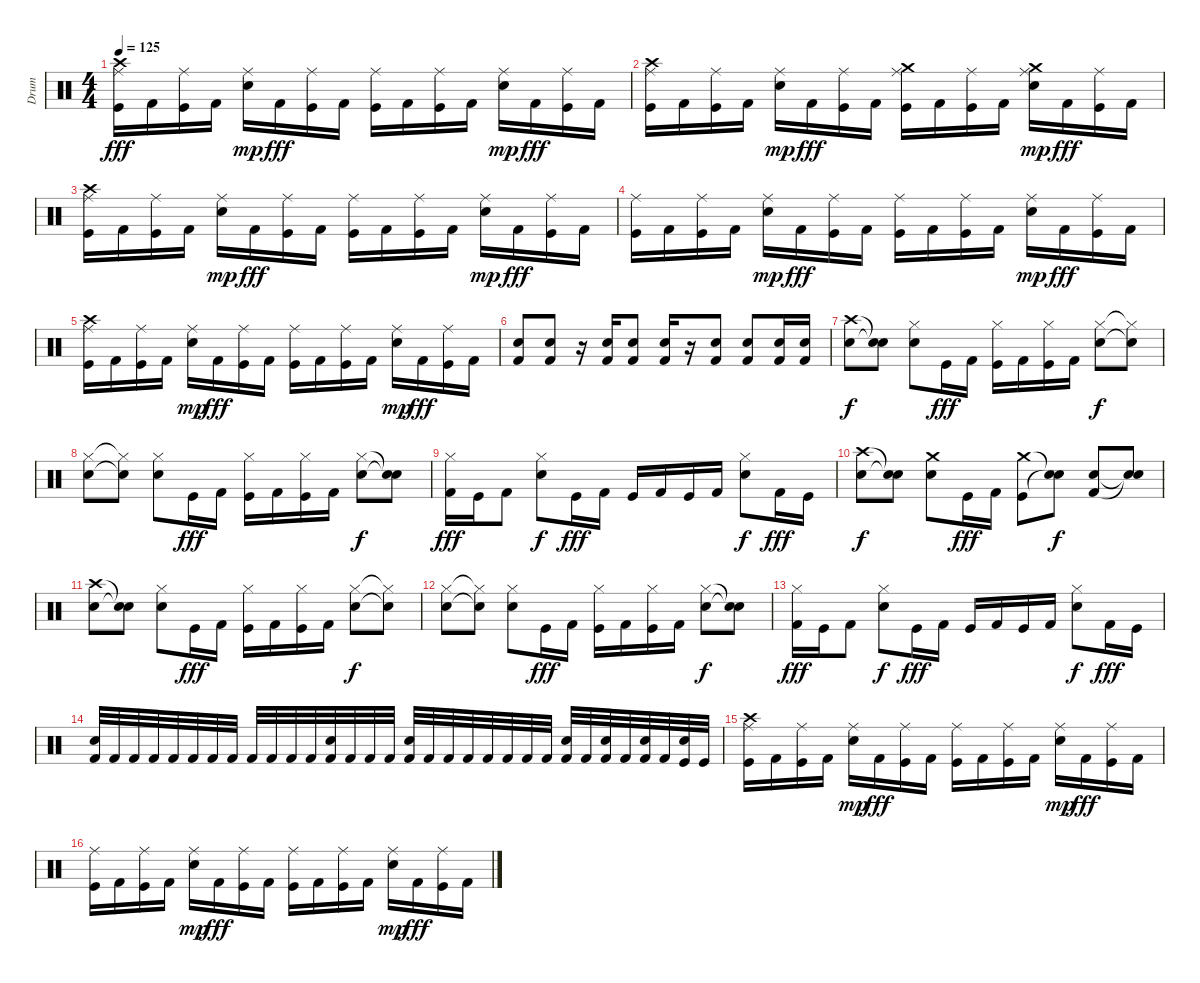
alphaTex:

\track ("Drum" "Drum") {instrument percussion}
\staff {score}
\articulation defaults
\ts (4 4)
\tempo 125
\clef neutral
\ks c
("Crash high (hit)" "Ride (middle)" "Kick (hit)").16{dy fff} "Kick (hit) 2".16 ("Ride (middle)" "Kick (hit)").16 "Kick (hit) 2".16 ("Ride (middle)" "Electric Snare (hit)").16{dy mp} "Kick (hit) 2".16{dy fff} ("Ride (middle)" "Kick (hit)").16 "Kick (hit) 2".16 ("Ride (middle)" "Kick (hit)").16 "Kick (hit) 2".16 ("Ride (middle)" "Kick (hit)").16 "Kick (hit) 2".16 ("Ride (middle)" "Electric Snare (hit)").16{dy mp} "Kick (hit) 2".16{dy fff} ("Ride (middle)" "Kick (hit)").16 "Kick (hit) 2".16 |
("Crash high (hit)" "Ride (middle)" "Kick (hit)").16 "Kick (hit) 2".16 ("Ride (middle)" "Kick (hit)").16 "Kick (hit) 2".16 ("Ride (middle)" "Electric Snare (hit)").16{dy mp} "Kick (hit) 2".16{dy fff} ("Ride (middle)" "Kick (hit)").16 "Kick (hit) 2".16 ("Crash medium (hit)" "Ride (middle)" "Kick (hit)").16 "Kick (hit) 2".16 ("Ride (middle)" "Kick (hit)").16 "Kick (hit) 2".16 ("Crash medium (hit)" "Ride (middle)" "Electric Snare (hit)").16{dy mp} "Kick (hit) 2".16{dy fff} ("Ride (middle)" "Kick (hit)").16 "Kick (hit) 2".16 |
("Crash high (hit)" "Ride (middle)" "Kick (hit)").16 "Kick (hit) 2".16 ("Ride (middle)" "Kick (hit)").16 "Kick (hit) 2".16 ("Ride (middle)" "Electric Snare (hit)").16{dy mp} "Kick (hit) 2".16{dy fff} ("Ride (middle)" "Kick (hit)").16 "Kick (hit) 2".16 ("Ride (middle)" "Kick (hit)").16 "Kick (hit) 2".16 ("Ride (middle)" "Kick (hit)").16 "Kick (hit) 2".16 ("Ride (middle)" "Electric Snare (hit)").16{dy mp} "Kick (hit) 2".16{dy fff} ("Ride (middle)" "Kick (hit)").16 "Kick (hit) 2".16 |
("Ride (middle)" "Kick (hit)").16 "Kick (hit) 2".16 ("Ride (middle)" "Kick (hit)").16 "Kick (hit) 2".16 ("Ride (middle)" "Electric Snare (hit)").16{dy mp} "Kick (hit) 2".16{dy fff} ("Ride (middle)" "Kick (hit)").16 "Kick (hit) 2".16 ("Ride (middle)" "Kick (hit)").16 "Kick (hit) 2".16 ("Ride (middle)" "Kick (hit)").16 "Kick (hit) 2".16 ("Ride (middle)" "Electric Snare (hit)").16{dy mp} "Kick (hit) 2".16{dy fff} ("Ride (middle)" "Kick (hit)").16 "Kick (hit) 2".16 |
("Crash high (hit)" "Ride (middle)" "Kick (hit)").16 "Kick (hit) 2".16 ("Ride (middle)" "Kick (hit)").16 "Kick (hit) 2".16 ("Ride (middle)" "Electric Snare (hit)").16{dy mp} "Kick (hit) 2".16{dy fff} ("Ride (middle)" "Kick (hit)").16 "Kick (hit) 2".16 ("Ride (middle)" "Kick (hit)").16 "Kick (hit) 2".16 ("Ride (middle)" "Kick (hit)").16 "Kick (hit) 2".16 ("Ride (middle)" "Electric Snare (hit)").16{dy mp} "Kick (hit) 2".16{dy fff} ("Ride (middle)" "Kick (hit)").16 "Kick (hit) 2".16 |
("Electric Snare (hit)" "Kick (hit) 2").8 ("Electric Snare (hit)" "Kick (hit) 2").8 r.16 ("Electric Snare (hit)" "Kick (hit) 2").16 ("Electric Snare (hit)" "Kick (hit) 2").8 ("Electric Snare (hit)" "Kick (hit) 2").16 r.16 ("Electric Snare (hit)" "Kick (hit) 2").8 ("Electric Snare (hit)" "Kick (hit) 2").8 ("Electric Snare (hit)" "Kick (hit) 2").16 ("Electric Snare (hit)" "Kick (hit) 2").16 |
("Crash high (hit)" "Snare (hit) 2").8{dy f} ("Snare (hit)"{t} "Snare (hit)"{t}).8 ("Hi-Hat (closed)" "Electric Snare (hit)").8 "Kick (hit)".16{dy fff} "Kick (hit) 2".16 ("Hi-Hat (closed)" "Kick (hit)").16 "Kick (hit) 2".16 ("Hi-Hat (closed)" "Kick (hit)").16 "Kick (hit) 2".16 ("Hi-Hat (closed)" "Electric Snare (hit)").8{dy f} ("Hi-Hat (closed)"{t} "Snare (hit)"{t}).8 |
("Hi-Hat (closed)" "Snare (hit) 2").8 ("Hi-Hat (closed)"{t} "Snare (hit)"{t}).8 ("Hi-Hat (closed)" "Electric Snare (hit)").8 "Kick (hit)".16{dy fff} "Kick (hit) 2".16 ("Hi-Hat (closed)" "Kick (hit)").16 "Kick (hit) 2".16 ("Hi-Hat (closed)" "Kick (hit)").16 "Kick (hit) 2".16 ("Hi-Hat (closed)" "Electric Snare (hit)").8{dy f} ("Snare (hit)"{t} "Snare (hit)"{t}).8 |
("Hi-Hat (closed)" "Kick (hit) 2").16{dy fff} "Kick (hit)".16 "Kick (hit) 2".8 ("Hi-Hat (closed)" "Electric Snare (hit)").8{dy f} "Kick (hit)".16{dy fff} "Kick (hit) 2".16 "Kick (hit)".16 "Kick (hit) 2".16 "Kick (hit)".16 "Kick (hit) 2".16 ("Hi-Hat (closed)" "Electric Snare (hit)").8{dy f} "Kick (hit) 2".16{dy fff} "Kick (hit)".16 |
("Crash high (hit)" "Snare (hit) 2").8{dy f} ("Snare (hit)"{t} "Snare (hit)"{t}).8 ("Crash medium (hit)" "Electric Snare (hit)").8 "Kick (hit)".16{dy fff} "Kick (hit) 2".16 ("Crash medium (hit)" "Kick (hit)").8 ("Snare (hit)"{t} "Snare (hit)"{t}).8{dy f} ("Electric Snare (hit)" "Kick (hit) 2").8 ("Snare (hit)"{t} "Snare (hit)"{t}).8 |
("Crash high (hit)" "Snare (hit) 2").8 ("Snare (hit)"{t} "Snare (hit)"{t}).8 ("Hi-Hat (closed)" "Electric Snare (hit)").8 "Kick (hit)".16{dy fff} "Kick (hit) 2".16 ("Hi-Hat (closed)" "Kick (hit)").16 "Kick (hit) 2".16 ("Hi-Hat (closed)" "Kick (hit)").16 "Kick (hit) 2".16 ("Hi-Hat (closed)" "Electric Snare (hit)").8{dy f} ("Hi-Hat (closed)"{t} "Snare (hit)"{t}).8 |
("Hi-Hat (closed)" "Snare (hit) 2").8 ("Hi-Hat (closed)"{t} "Snare (hit)"{t}).8 ("Hi-Hat (closed)" "Electric Snare (hit)").8 "Kick (hit)".16{dy fff} "Kick (hit) 2".16 ("Hi-Hat (closed)" "Kick (hit)").16 "Kick (hit) 2".16 ("Hi-Hat (closed)" "Kick (hit)").16 "Kick (hit) 2".16 ("Hi-Hat (closed)" "Electric Snare (hit)").8{dy f} ("Snare (hit)"{t} "Snare (hit)"{t}).8 |
("Hi-Hat (closed)" "Kick (hit) 2").16{dy fff} "Kick (hit)".16 "Kick (hit) 2".8 ("Hi-Hat (closed)" "Electric Snare (hit)").8{dy f} "Kick (hit)".16{dy fff} "Kick (hit) 2".16 "Kick (hit)".16 "Kick (hit) 2".16 "Kick (hit)".16 "Kick (hit) 2".16 ("Hi-Hat (closed)" "Electric Snare (hit)").8{dy f} "Kick (hit) 2".16{dy fff} "Kick (hit)".16 |
("Electric Snare (hit)" "Kick (hit) 2").32 "Kick (hit) 2".32 "Kick (hit) 2".32 "Kick (hit) 2".32 "Kick (hit) 2".32 "Kick (hit) 2".32 "Kick (hit) 2".32 "Kick (hit) 2".32 "Kick (hit) 2".32 "Kick (hit) 2".32 "Kick (hit) 2".32 "Kick (hit) 2".32 ("Electric Snare (hit)" "Kick (hit) 2").32 "Kick (hit) 2".32 "Kick (hit) 2".32 "Kick (hit) 2".32 ("Electric Snare (hit)" "Kick (hit) 2").32 "Kick (hit) 2".32 "Kick (hit) 2".32 "Kick (hit) 2".32 "Kick (hit) 2".32 "Kick (hit) 2".32 "Kick (hit) 2".32 "Kick (hit) 2".32 ("Electric Snare (hit)" "Kick (hit) 2").32 "Kick (hit) 2".32 ("Electric Snare (hit)" "Kick (hit) 2").32 "Kick (hit) 2".32 ("Snare (hit) 2" "Kick (hit) 2").32 "Kick (hit) 2".32 ("Snare (hit) 2" "Kick (hit)").32 "Kick (hit)".32 |
("Crash high (hit)" "Ride (middle)" "Kick (hit)").16 "Kick (hit) 2".16 ("Ride (middle)" "Kick (hit)").16 "Kick (hit) 2".16 ("Ride (middle)" "Electric Snare (hit)").16{dy mp} "Kick (hit) 2".16{dy fff} ("Ride (middle)" "Kick (hit)").16 "Kick (hit) 2".16 ("Ride (middle)" "Kick (hit)").16 "Kick (hit) 2".16 ("Ride (middle)" "Kick (hit)").16 "Kick (hit) 2".16 ("Ride (middle)" "Electric Snare (hit)").16{dy mp} "Kick (hit) 2".16{dy fff} ("Ride (middle)" "Kick (hit)").16 "Kick (hit) 2".16 |
("Ride (middle)" "Kick (hit)").16 "Kick (hit) 2".16 ("Ride (middle)" "Kick (hit)").16 "Kick (hit) 2".16 ("Ride (middle)" "Electric Snare (hit)").16{dy mp} "Kick (hit) 2".16{dy fff} ("Ride (middle)" "Kick (hit)").16 "Kick (hit) 2".16 ("Ride (middle)" "Kick (hit)").16 "Kick (hit) 2".16 ("Ride (middle)" "Kick (hit)").16 "Kick (hit) 2".16 ("Ride (middle)" "Electric Snare (hit)").16{dy mp} "Kick (hit) 2".16{dy fff} ("Ride (middle)" "Kick (hit)").16 "Kick (hit) 2".16
